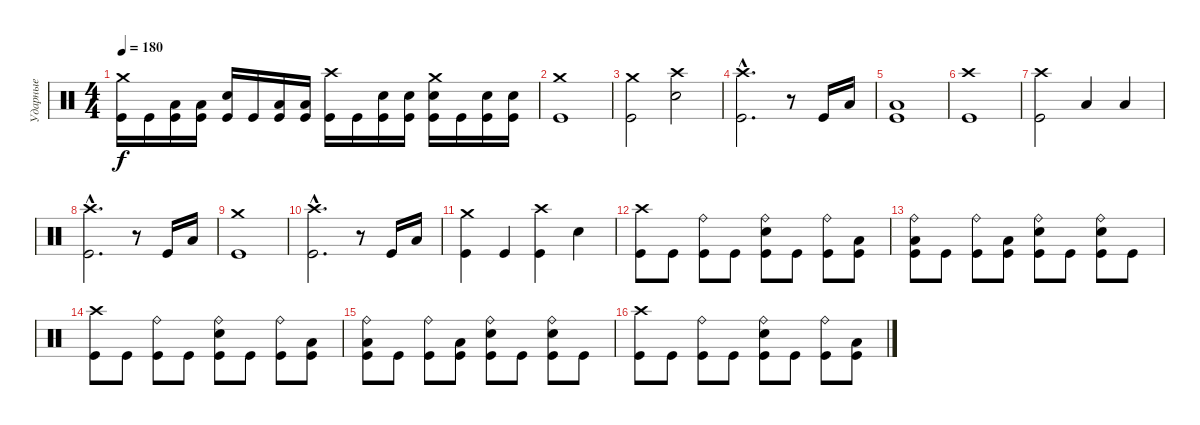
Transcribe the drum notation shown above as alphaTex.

\track ("Ударные" "Ударные") {instrument percussion}
\staff {score}
\articulation defaults
\ts (4 4)
\tempo 180
\clef neutral
\ks c
("Crash medium (hit)" "Kick (hit)").16{dy f} "Kick (hit)".16 ("Low Tom (hit)" "Kick (hit)").16 ("Low Tom (hit)" "Kick (hit)").16 ("Electric Snare (hit)" "Kick (hit)").16 "Kick (hit)".16 ("Low Tom (hit)" "Kick (hit)").16 ("Low Tom (hit)" "Kick (hit)").16 ("Crash high (hit)" "Kick (hit)").16 "Kick (hit)".16 ("Electric Snare (hit)" "Kick (hit)").16 ("Electric Snare (hit)" "Kick (hit)").16 ("Crash medium (hit)" "Electric Snare (hit)" "Kick (hit)").16 "Kick (hit)".16 ("Electric Snare (hit)" "Kick (hit)").16 ("Electric Snare (hit)" "Kick (hit)").16 |
("Crash medium (hit)" "Kick (hit)").1 |
("Crash medium (hit)" "Kick (hit)").2 ("Crash high (hit)" "Electric Snare (hit)").2 |
("Crash high (hit)"{hac} "Kick (hit)"{hac}).2{d} r.8 "Kick (hit)".16 "Low Tom (hit)".16 |
("Low Tom (hit)" "Kick (hit)").1 |
("Crash high (hit)" "Kick (hit)").1 |
("Crash high (hit)" "Kick (hit)").2 "Low Tom (hit)".4 "Low Tom (hit)".4 |
("Crash high (hit)"{hac} "Kick (hit)"{hac}).2{d} r.8 "Kick (hit)".16 "Low Tom (hit)".16 |
("Crash medium (hit)" "Kick (hit)").1 |
("Crash high (hit)"{hac} "Kick (hit)"{hac}).2{d} r.8 "Kick (hit)".16 "Low Tom (hit)".16 |
("Crash medium (hit)" "Kick (hit)").4 "Kick (hit)".4 ("Crash high (hit)" "Kick (hit)").4 "Electric Snare (hit)".4 |
("Crash high (hit)" "Kick (hit)").8 "Kick (hit)".8 ("Ride (bell)" "Kick (hit)").8 "Kick (hit)".8 ("Ride (bell)" "Electric Snare (hit)" "Kick (hit)").8 "Kick (hit)".8 ("Ride (bell)" "Kick (hit)").8 ("Low Tom (hit)" "Kick (hit)").8 |
("Ride (bell)" "Low Tom (hit)" "Kick (hit)").8 "Kick (hit)".8 ("Ride (bell)" "Kick (hit)").8 ("Low Tom (hit)" "Kick (hit)").8 ("Ride (bell)" "Electric Snare (hit)" "Kick (hit)").8 "Kick (hit)".8 ("Ride (bell)" "Electric Snare (hit)" "Kick (hit)").8 "Kick (hit)".8 |
("Crash high (hit)" "Kick (hit)").8 "Kick (hit)".8 ("Ride (bell)" "Kick (hit)").8 "Kick (hit)".8 ("Ride (bell)" "Electric Snare (hit)" "Kick (hit)").8 "Kick (hit)".8 ("Ride (bell)" "Kick (hit)").8 ("Low Tom (hit)" "Kick (hit)").8 |
("Ride (bell)" "Low Tom (hit)" "Kick (hit)").8 "Kick (hit)".8 ("Ride (bell)" "Kick (hit)").8 ("Low Tom (hit)" "Kick (hit)").8 ("Ride (bell)" "Electric Snare (hit)" "Kick (hit)").8 "Kick (hit)".8 ("Ride (bell)" "Electric Snare (hit)" "Kick (hit)").8 "Kick (hit)".8 |
("Crash high (hit)" "Kick (hit)").8 "Kick (hit)".8 ("Ride (bell)" "Kick (hit)").8 "Kick (hit)".8 ("Ride (bell)" "Electric Snare (hit)" "Kick (hit)").8 "Kick (hit)".8 ("Ride (bell)" "Kick (hit)").8 ("Low Tom (hit)" "Kick (hit)").8
